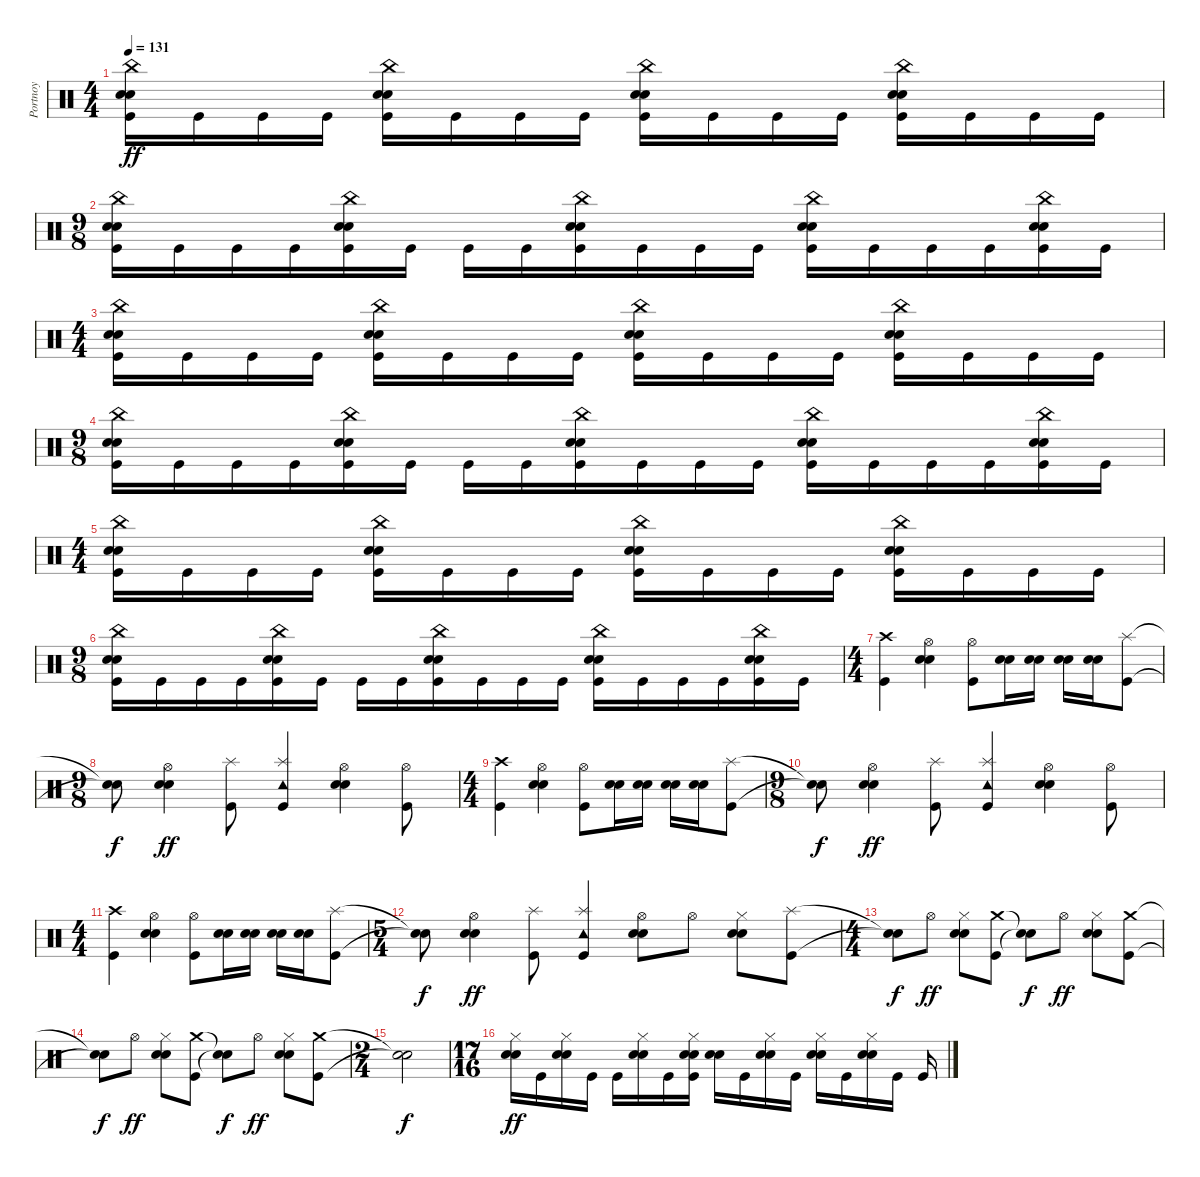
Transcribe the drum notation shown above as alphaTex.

\track ("Portnoy" "Portnoy") {instrument percussion}
\staff {score}
\articulation defaults
\ts (4 4)
\tempo 131
\clef neutral
\ks c
("China (hit)" "Snare (hit) 2" "Electric Snare (hit)" "Kick (hit)").16{dy ff} "Kick (hit)".16 "Kick (hit)".16 "Kick (hit)".16 ("China (hit)" "Snare (hit) 2" "Electric Snare (hit)" "Kick (hit)").16 "Kick (hit)".16 "Kick (hit)".16 "Kick (hit)".16 ("China (hit)" "Snare (hit) 2" "Electric Snare (hit)" "Kick (hit)").16 "Kick (hit)".16 "Kick (hit)".16 "Kick (hit)".16 ("China (hit)" "Snare (hit) 2" "Electric Snare (hit)" "Kick (hit)").16 "Kick (hit)".16 "Kick (hit)".16 "Kick (hit)".16 |
\ts (9 8)
("China (hit)" "Snare (hit) 2" "Electric Snare (hit)" "Kick (hit)").16 "Kick (hit)".16 "Kick (hit)".16 "Kick (hit)".16 ("China (hit)" "Snare (hit) 2" "Electric Snare (hit)" "Kick (hit)").16 "Kick (hit)".16 "Kick (hit)".16 "Kick (hit)".16 ("China (hit)" "Snare (hit) 2" "Electric Snare (hit)" "Kick (hit)").16 "Kick (hit)".16 "Kick (hit)".16 "Kick (hit)".16 ("China (hit)" "Snare (hit) 2" "Electric Snare (hit)" "Kick (hit)").16 "Kick (hit)".16 "Kick (hit)".16 "Kick (hit)".16 ("China (hit)" "Snare (hit) 2" "Electric Snare (hit)" "Kick (hit)").16 "Kick (hit)".16 |
\ts (4 4)
("China (hit)" "Snare (hit) 2" "Electric Snare (hit)" "Kick (hit)").16 "Kick (hit)".16 "Kick (hit)".16 "Kick (hit)".16 ("China (hit)" "Snare (hit) 2" "Electric Snare (hit)" "Kick (hit)").16 "Kick (hit)".16 "Kick (hit)".16 "Kick (hit)".16 ("China (hit)" "Snare (hit) 2" "Electric Snare (hit)" "Kick (hit)").16 "Kick (hit)".16 "Kick (hit)".16 "Kick (hit)".16 ("China (hit)" "Snare (hit) 2" "Electric Snare (hit)" "Kick (hit)").16 "Kick (hit)".16 "Kick (hit)".16 "Kick (hit)".16 |
\ts (9 8)
("China (hit)" "Snare (hit) 2" "Electric Snare (hit)" "Kick (hit)").16 "Kick (hit)".16 "Kick (hit)".16 "Kick (hit)".16 ("China (hit)" "Snare (hit) 2" "Electric Snare (hit)" "Kick (hit)").16 "Kick (hit)".16 "Kick (hit)".16 "Kick (hit)".16 ("China (hit)" "Snare (hit) 2" "Electric Snare (hit)" "Kick (hit)").16 "Kick (hit)".16 "Kick (hit)".16 "Kick (hit)".16 ("China (hit)" "Snare (hit) 2" "Electric Snare (hit)" "Kick (hit)").16 "Kick (hit)".16 "Kick (hit)".16 "Kick (hit)".16 ("China (hit)" "Snare (hit) 2" "Electric Snare (hit)" "Kick (hit)").16 "Kick (hit)".16 |
\ts (4 4)
("China (hit)" "Snare (hit) 2" "Electric Snare (hit)" "Kick (hit)").16 "Kick (hit)".16 "Kick (hit)".16 "Kick (hit)".16 ("China (hit)" "Snare (hit) 2" "Electric Snare (hit)" "Kick (hit)").16 "Kick (hit)".16 "Kick (hit)".16 "Kick (hit)".16 ("China (hit)" "Snare (hit) 2" "Electric Snare (hit)" "Kick (hit)").16 "Kick (hit)".16 "Kick (hit)".16 "Kick (hit)".16 ("China (hit)" "Snare (hit) 2" "Electric Snare (hit)" "Kick (hit)").16 "Kick (hit)".16 "Kick (hit)".16 "Kick (hit)".16 |
\ts (9 8)
("China (hit)" "Snare (hit) 2" "Electric Snare (hit)" "Kick (hit)").16 "Kick (hit)".16 "Kick (hit)".16 "Kick (hit)".16 ("China (hit)" "Snare (hit) 2" "Electric Snare (hit)" "Kick (hit)").16 "Kick (hit)".16 "Kick (hit)".16 "Kick (hit)".16 ("China (hit)" "Snare (hit) 2" "Electric Snare (hit)" "Kick (hit)").16 "Kick (hit)".16 "Kick (hit)".16 "Kick (hit)".16 ("China (hit)" "Snare (hit) 2" "Electric Snare (hit)" "Kick (hit)").16 "Kick (hit)".16 "Kick (hit)".16 "Kick (hit)".16 ("China (hit)" "Snare (hit) 2" "Electric Snare (hit)" "Kick (hit)").16 "Kick (hit)".16 |
\ts (4 4)
("Crash high (hit)" "Kick (hit)").4 ("Hi-Hat (open)" "Snare (hit) 2" "Electric Snare (hit)").4 ("Hi-Hat (open)" "Kick (hit)").8 ("Snare (hit) 2" "Electric Snare (hit)").16 ("Snare (hit) 2" "Electric Snare (hit)").16 ("Snare (hit) 2" "Electric Snare (hit)").16 ("Snare (hit) 2" "Electric Snare (hit)").16 ("Splash (hit)" "Kick (hit)").8 |
\ts (9 8)
("Snare (hit)"{t} "Snare (hit)"{t}).8{dy f} ("Hi-Hat (open)" "Snare (hit) 2" "Electric Snare (hit)").4{dy ff} ("Splash (hit)" "Kick (hit)").8 ("Splash (hit)" "Tambourine (hit)" "Kick (hit)").4 ("Hi-Hat (open)" "Snare (hit) 2" "Electric Snare (hit)").4 ("Hi-Hat (open)" "Kick (hit)").8 |
\ts (4 4)
("Crash high (hit)" "Kick (hit)").4 ("Hi-Hat (open)" "Snare (hit) 2" "Electric Snare (hit)").4 ("Hi-Hat (open)" "Kick (hit)").8 ("Snare (hit) 2" "Electric Snare (hit)").16 ("Snare (hit) 2" "Electric Snare (hit)").16 ("Snare (hit) 2" "Electric Snare (hit)").16 ("Snare (hit) 2" "Electric Snare (hit)").16 ("Splash (hit)" "Kick (hit)").8 |
\ts (9 8)
("Snare (hit)"{t} "Snare (hit)"{t}).8{dy f} ("Hi-Hat (open)" "Snare (hit) 2" "Electric Snare (hit)").4{dy ff} ("Splash (hit)" "Kick (hit)").8 ("Splash (hit)" "Tambourine (hit)" "Kick (hit)").4 ("Hi-Hat (open)" "Snare (hit) 2" "Electric Snare (hit)").4 ("Hi-Hat (open)" "Kick (hit)").8 |
\ts (4 4)
("Crash high (hit)" "Kick (hit)").4 ("Hi-Hat (open)" "Snare (hit) 2" "Electric Snare (hit)").4 ("Hi-Hat (open)" "Kick (hit)").8 ("Snare (hit) 2" "Electric Snare (hit)").16 ("Snare (hit) 2" "Electric Snare (hit)").16 ("Snare (hit) 2" "Electric Snare (hit)").16 ("Snare (hit) 2" "Electric Snare (hit)").16 ("Splash (hit)" "Kick (hit)").8 |
\ts (5 4)
("Snare (hit)"{t} "Snare (hit)"{t}).8{dy f} ("Hi-Hat (open)" "Snare (hit) 2" "Electric Snare (hit)").4{dy ff} ("Splash (hit)" "Kick (hit)").8 ("Splash (hit)" "Tambourine (hit)" "Kick (hit)").4 ("Hi-Hat (open)" "Snare (hit) 2" "Electric Snare (hit)").8 "Hi-Hat (open)".8 ("Hi-Hat (closed)" "Snare (hit) 2" "Electric Snare (hit)").8 ("Splash (hit)" "Kick (hit)").8 |
\ts (4 4)
("Snare (hit)"{t} "Snare (hit)"{t}).8{dy f} "Hi-Hat (open)".8{dy ff} ("Hi-Hat (closed)" "Snare (hit) 2" "Electric Snare (hit)").8 ("Crash medium (hit)" "Kick (hit)").8 ("Snare (hit)"{t} "Snare (hit)"{t}).8{dy f} "Hi-Hat (open)".8{dy ff} ("Hi-Hat (closed)" "Snare (hit) 2" "Electric Snare (hit)").8 ("Crash medium (hit)" "Kick (hit)").8 |
("Snare (hit)"{t} "Snare (hit)"{t}).8{dy f} "Hi-Hat (open)".8{dy ff} ("Hi-Hat (closed)" "Snare (hit) 2" "Electric Snare (hit)").8 ("Crash medium (hit)" "Kick (hit)").8 ("Snare (hit)"{t} "Snare (hit)"{t}).8{dy f} "Hi-Hat (open)".8{dy ff} ("Hi-Hat (closed)" "Snare (hit) 2" "Electric Snare (hit)").8 ("Crash medium (hit)" "Kick (hit)").8 |
\ts (2 4)
("Snare (hit)"{t} "Snare (hit)"{t}).2{dy f} |
\ts (17 16)
("Hi-Hat (closed)" "Snare (hit) 2" "Electric Snare (hit)").16{dy ff} "Kick (hit)".16 ("Hi-Hat (closed)" "Snare (hit) 2" "Electric Snare (hit)").16 "Kick (hit)".16 "Kick (hit)".16 ("Hi-Hat (closed)" "Snare (hit) 2" "Electric Snare (hit)").16 "Kick (hit)".16 ("Hi-Hat (closed)" "Snare (hit) 2" "Electric Snare (hit)" "Kick (hit)").16 ("Snare (hit) 2" "Electric Snare (hit)").16 "Kick (hit)".16 ("Hi-Hat (closed)" "Electric Snare (hit)" "Snare (hit) 2").16 "Kick (hit)".16 ("Hi-Hat (closed)" "Snare (hit) 2" "Electric Snare (hit)").16 "Kick (hit)".16 ("Hi-Hat (closed)" "Snare (hit) 2" "Electric Snare (hit)").16 "Kick (hit)".16 "Kick (hit)".16
